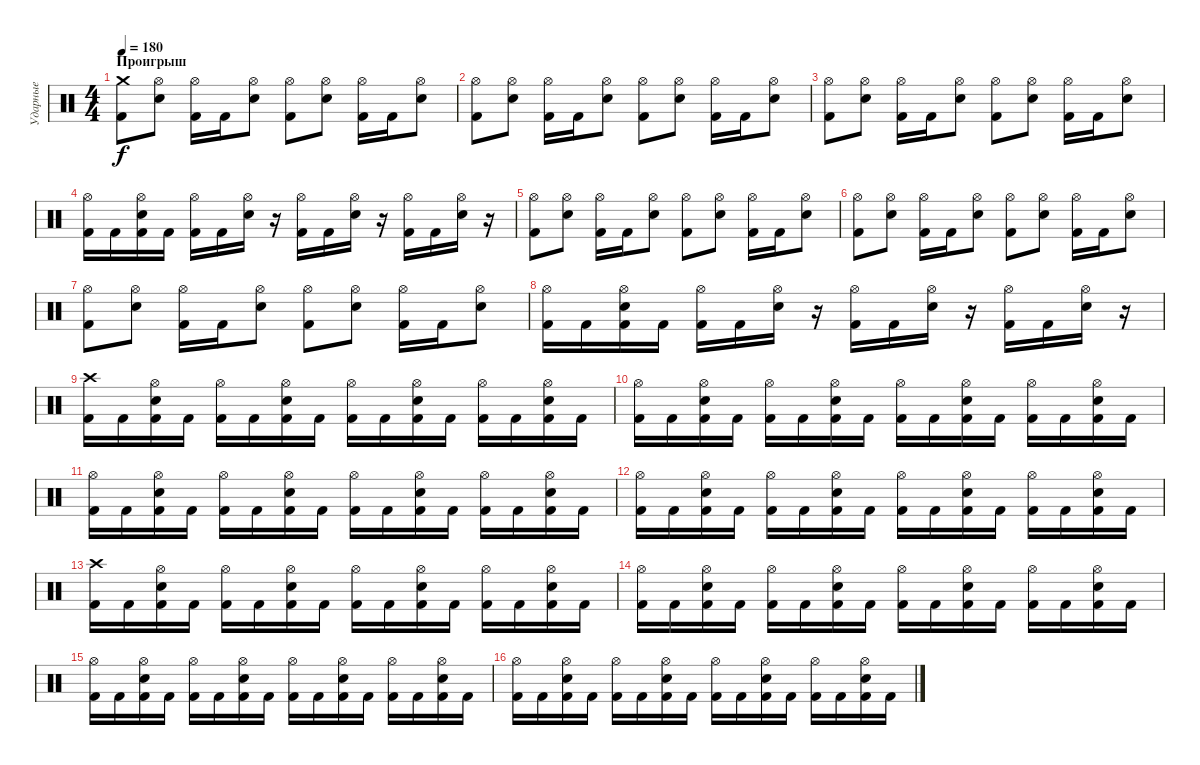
\track ("Ударные" "Ударные") {instrument percussion}
\staff {score}
\articulation defaults
\ts (4 4)
\section ("" "Проигрыш")
\tempo 180
\clef neutral
\ks c
("Crash medium (hit)" "Kick (hit) 2").8{dy f} ("Hi-Hat (open)" "Electric Snare (hit)").8 ("Hi-Hat (open)" "Kick (hit) 2").16 "Kick (hit) 2".16 ("Hi-Hat (open)" "Electric Snare (hit)").8 ("Hi-Hat (open)" "Kick (hit) 2").8 ("Hi-Hat (open)" "Electric Snare (hit)").8 ("Hi-Hat (open)" "Kick (hit) 2").16 "Kick (hit) 2".16 ("Hi-Hat (open)" "Electric Snare (hit)").8 |
("Hi-Hat (open)" "Kick (hit) 2").8 ("Hi-Hat (open)" "Electric Snare (hit)").8 ("Hi-Hat (open)" "Kick (hit) 2").16 "Kick (hit) 2".16 ("Hi-Hat (open)" "Electric Snare (hit)").8 ("Hi-Hat (open)" "Kick (hit) 2").8 ("Hi-Hat (open)" "Electric Snare (hit)").8 ("Hi-Hat (open)" "Kick (hit) 2").16 "Kick (hit) 2".16 ("Hi-Hat (open)" "Electric Snare (hit)").8 |
("Hi-Hat (open)" "Kick (hit) 2").8 ("Hi-Hat (open)" "Electric Snare (hit)").8 ("Hi-Hat (open)" "Kick (hit) 2").16 "Kick (hit) 2".16 ("Hi-Hat (open)" "Electric Snare (hit)").8 ("Hi-Hat (open)" "Kick (hit) 2").8 ("Hi-Hat (open)" "Electric Snare (hit)").8 ("Hi-Hat (open)" "Kick (hit) 2").16 "Kick (hit) 2".16 ("Hi-Hat (open)" "Electric Snare (hit)").8 |
("Hi-Hat (open)" "Kick (hit) 2").16 "Kick (hit) 2".16 ("Hi-Hat (open)" "Electric Snare (hit)" "Kick (hit) 2").16 "Kick (hit) 2".16 ("Hi-Hat (open)" "Kick (hit) 2").16 "Kick (hit) 2".16 ("Hi-Hat (open)" "Electric Snare (hit)").16 r.16 ("Hi-Hat (open)" "Kick (hit) 2").16 "Kick (hit) 2".16 ("Hi-Hat (open)" "Electric Snare (hit)").16 r.16 ("Hi-Hat (open)" "Kick (hit) 2").16 "Kick (hit) 2".16 ("Hi-Hat (open)" "Electric Snare (hit)").16 r.16 |
("Hi-Hat (open)" "Kick (hit) 2").8 ("Hi-Hat (open)" "Electric Snare (hit)").8 ("Hi-Hat (open)" "Kick (hit) 2").16 "Kick (hit) 2".16 ("Hi-Hat (open)" "Electric Snare (hit)").8 ("Hi-Hat (open)" "Kick (hit) 2").8 ("Hi-Hat (open)" "Electric Snare (hit)").8 ("Hi-Hat (open)" "Kick (hit) 2").16 "Kick (hit) 2".16 ("Hi-Hat (open)" "Electric Snare (hit)").8 |
("Hi-Hat (open)" "Kick (hit) 2").8 ("Hi-Hat (open)" "Electric Snare (hit)").8 ("Hi-Hat (open)" "Kick (hit) 2").16 "Kick (hit) 2".16 ("Hi-Hat (open)" "Electric Snare (hit)").8 ("Hi-Hat (open)" "Kick (hit) 2").8 ("Hi-Hat (open)" "Electric Snare (hit)").8 ("Hi-Hat (open)" "Kick (hit) 2").16 "Kick (hit) 2".16 ("Hi-Hat (open)" "Electric Snare (hit)").8 |
("Hi-Hat (open)" "Kick (hit) 2").8 ("Hi-Hat (open)" "Electric Snare (hit)").8 ("Hi-Hat (open)" "Kick (hit) 2").16 "Kick (hit) 2".16 ("Hi-Hat (open)" "Electric Snare (hit)").8 ("Hi-Hat (open)" "Kick (hit) 2").8 ("Hi-Hat (open)" "Electric Snare (hit)").8 ("Hi-Hat (open)" "Kick (hit) 2").16 "Kick (hit) 2".16 ("Hi-Hat (open)" "Electric Snare (hit)").8 |
("Hi-Hat (open)" "Kick (hit) 2").16 "Kick (hit) 2".16 ("Hi-Hat (open)" "Electric Snare (hit)" "Kick (hit) 2").16 "Kick (hit) 2".16 ("Hi-Hat (open)" "Kick (hit) 2").16 "Kick (hit) 2".16 ("Hi-Hat (open)" "Electric Snare (hit)").16 r.16 ("Hi-Hat (open)" "Kick (hit) 2").16 "Kick (hit) 2".16 ("Hi-Hat (open)" "Electric Snare (hit)").16 r.16 ("Hi-Hat (open)" "Kick (hit) 2").16 "Kick (hit) 2".16 ("Hi-Hat (open)" "Electric Snare (hit)").16 r.16 |
("Crash high (hit)" "Kick (hit) 2").16 "Kick (hit) 2".16 ("Hi-Hat (open)" "Electric Snare (hit)" "Kick (hit) 2").16 "Kick (hit) 2".16 ("Hi-Hat (open)" "Kick (hit) 2").16 "Kick (hit) 2".16 ("Hi-Hat (open)" "Electric Snare (hit)" "Kick (hit) 2").16 "Kick (hit) 2".16 ("Hi-Hat (open)" "Kick (hit) 2").16 "Kick (hit) 2".16 ("Hi-Hat (open)" "Electric Snare (hit)" "Kick (hit) 2").16 "Kick (hit) 2".16 ("Hi-Hat (open)" "Kick (hit) 2").16 "Kick (hit) 2".16 ("Hi-Hat (open)" "Electric Snare (hit)" "Kick (hit) 2").16 "Kick (hit) 2".16 |
("Hi-Hat (open)" "Kick (hit) 2").16 "Kick (hit) 2".16 ("Hi-Hat (open)" "Electric Snare (hit)" "Kick (hit) 2").16 "Kick (hit) 2".16 ("Hi-Hat (open)" "Kick (hit) 2").16 "Kick (hit) 2".16 ("Hi-Hat (open)" "Electric Snare (hit)" "Kick (hit) 2").16 "Kick (hit) 2".16 ("Hi-Hat (open)" "Kick (hit) 2").16 "Kick (hit) 2".16 ("Hi-Hat (open)" "Electric Snare (hit)" "Kick (hit) 2").16 "Kick (hit) 2".16 ("Hi-Hat (open)" "Kick (hit) 2").16 "Kick (hit) 2".16 ("Hi-Hat (open)" "Electric Snare (hit)" "Kick (hit) 2").16 "Kick (hit) 2".16 |
("Hi-Hat (open)" "Kick (hit) 2").16 "Kick (hit) 2".16 ("Hi-Hat (open)" "Electric Snare (hit)" "Kick (hit) 2").16 "Kick (hit) 2".16 ("Hi-Hat (open)" "Kick (hit) 2").16 "Kick (hit) 2".16 ("Hi-Hat (open)" "Electric Snare (hit)" "Kick (hit) 2").16 "Kick (hit) 2".16 ("Hi-Hat (open)" "Kick (hit) 2").16 "Kick (hit) 2".16 ("Hi-Hat (open)" "Electric Snare (hit)" "Kick (hit) 2").16 "Kick (hit) 2".16 ("Hi-Hat (open)" "Kick (hit) 2").16 "Kick (hit) 2".16 ("Hi-Hat (open)" "Electric Snare (hit)" "Kick (hit) 2").16 "Kick (hit) 2".16 |
("Hi-Hat (open)" "Kick (hit) 2").16 "Kick (hit) 2".16 ("Hi-Hat (open)" "Electric Snare (hit)" "Kick (hit) 2").16 "Kick (hit) 2".16 ("Hi-Hat (open)" "Kick (hit) 2").16 "Kick (hit) 2".16 ("Hi-Hat (open)" "Electric Snare (hit)" "Kick (hit) 2").16 "Kick (hit) 2".16 ("Hi-Hat (open)" "Kick (hit) 2").16 "Kick (hit) 2".16 ("Hi-Hat (open)" "Electric Snare (hit)" "Kick (hit) 2").16 "Kick (hit) 2".16 ("Hi-Hat (open)" "Kick (hit) 2").16 "Kick (hit) 2".16 ("Hi-Hat (open)" "Electric Snare (hit)" "Kick (hit) 2").16 "Kick (hit) 2".16 |
("Crash high (hit)" "Kick (hit) 2").16 "Kick (hit) 2".16 ("Hi-Hat (open)" "Electric Snare (hit)" "Kick (hit) 2").16 "Kick (hit) 2".16 ("Hi-Hat (open)" "Kick (hit) 2").16 "Kick (hit) 2".16 ("Hi-Hat (open)" "Electric Snare (hit)" "Kick (hit) 2").16 "Kick (hit) 2".16 ("Hi-Hat (open)" "Kick (hit) 2").16 "Kick (hit) 2".16 ("Hi-Hat (open)" "Electric Snare (hit)" "Kick (hit) 2").16 "Kick (hit) 2".16 ("Hi-Hat (open)" "Kick (hit) 2").16 "Kick (hit) 2".16 ("Hi-Hat (open)" "Electric Snare (hit)" "Kick (hit) 2").16 "Kick (hit) 2".16 |
("Hi-Hat (open)" "Kick (hit) 2").16 "Kick (hit) 2".16 ("Hi-Hat (open)" "Electric Snare (hit)" "Kick (hit) 2").16 "Kick (hit) 2".16 ("Hi-Hat (open)" "Kick (hit) 2").16 "Kick (hit) 2".16 ("Hi-Hat (open)" "Electric Snare (hit)" "Kick (hit) 2").16 "Kick (hit) 2".16 ("Hi-Hat (open)" "Kick (hit) 2").16 "Kick (hit) 2".16 ("Hi-Hat (open)" "Electric Snare (hit)" "Kick (hit) 2").16 "Kick (hit) 2".16 ("Hi-Hat (open)" "Kick (hit) 2").16 "Kick (hit) 2".16 ("Hi-Hat (open)" "Electric Snare (hit)" "Kick (hit) 2").16 "Kick (hit) 2".16 |
("Hi-Hat (open)" "Kick (hit) 2").16 "Kick (hit) 2".16 ("Hi-Hat (open)" "Electric Snare (hit)" "Kick (hit) 2").16 "Kick (hit) 2".16 ("Hi-Hat (open)" "Kick (hit) 2").16 "Kick (hit) 2".16 ("Hi-Hat (open)" "Electric Snare (hit)" "Kick (hit) 2").16 "Kick (hit) 2".16 ("Hi-Hat (open)" "Kick (hit) 2").16 "Kick (hit) 2".16 ("Hi-Hat (open)" "Electric Snare (hit)" "Kick (hit) 2").16 "Kick (hit) 2".16 ("Hi-Hat (open)" "Kick (hit) 2").16 "Kick (hit) 2".16 ("Hi-Hat (open)" "Electric Snare (hit)" "Kick (hit) 2").16 "Kick (hit) 2".16 |
("Hi-Hat (open)" "Kick (hit) 2").16 "Kick (hit) 2".16 ("Hi-Hat (open)" "Electric Snare (hit)" "Kick (hit) 2").16 "Kick (hit) 2".16 ("Hi-Hat (open)" "Kick (hit) 2").16 "Kick (hit) 2".16 ("Hi-Hat (open)" "Electric Snare (hit)" "Kick (hit) 2").16 "Kick (hit) 2".16 ("Hi-Hat (open)" "Kick (hit) 2").16 "Kick (hit) 2".16 ("Hi-Hat (open)" "Electric Snare (hit)" "Kick (hit) 2").16 "Kick (hit) 2".16 ("Hi-Hat (open)" "Kick (hit) 2").16 "Kick (hit) 2".16 ("Hi-Hat (open)" "Electric Snare (hit)" "Kick (hit) 2").16 "Kick (hit) 2".16
